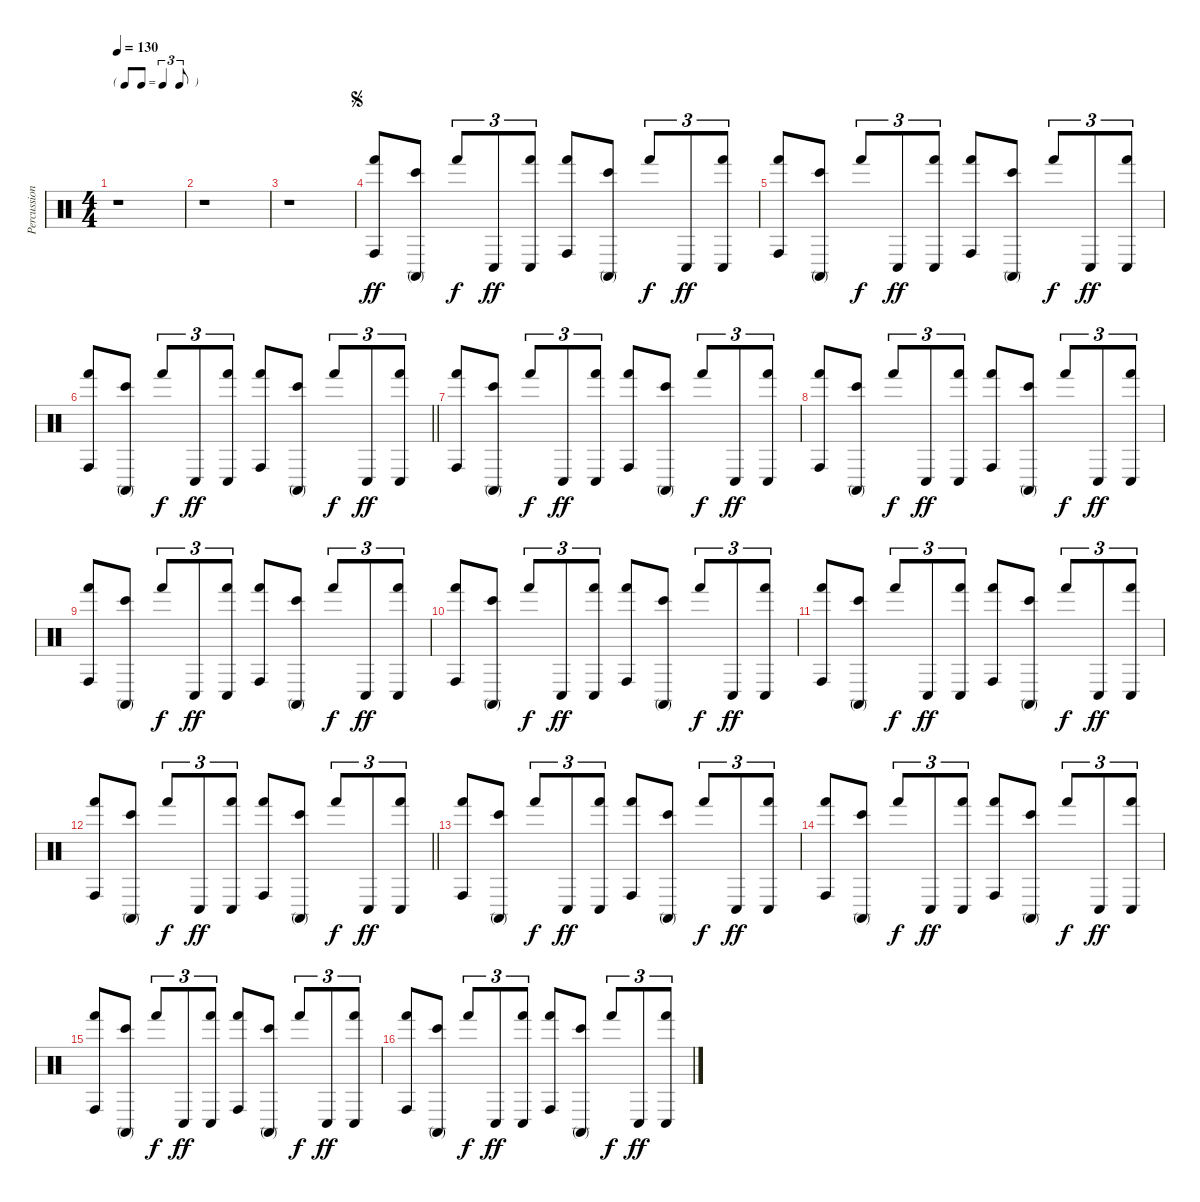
\track ("Percussion" "Percussion") {instrument percussion}
\staff {score}
\articulation defaults
\ts (4 4)
\tf triplet8th
\tempo 130
\clef neutral
\ks c
r.1{dy ff} |
r.1 |
r.1 |
\jump segno
("Hand (hit)" "Conga high (hit)").8 ("Bongo High (hit)" "Conga high (mute)").8 "Hand (hit)".8{tu (3 2) dy f} "Conga low (hit)".8{tu (3 2) dy ff} ("Hand (hit)" "Conga low (hit)").8{tu (3 2)} ("Hand (hit)" "Conga high (hit)").8 ("Bongo High (hit)" "Conga high (mute)").8 "Hand (hit)".8{tu (3 2) dy f} "Conga low (hit)".8{tu (3 2) dy ff} ("Hand (hit)" "Conga low (hit)").8{tu (3 2)} |
("Hand (hit)" "Conga high (hit)").8 ("Bongo High (hit)" "Conga high (mute)").8 "Hand (hit)".8{tu (3 2) dy f} "Conga low (hit)".8{tu (3 2) dy ff} ("Hand (hit)" "Conga low (hit)").8{tu (3 2)} ("Hand (hit)" "Conga high (hit)").8 ("Bongo High (hit)" "Conga high (mute)").8 "Hand (hit)".8{tu (3 2) dy f} "Conga low (hit)".8{tu (3 2) dy ff} ("Hand (hit)" "Conga low (hit)").8{tu (3 2)} |
\barLineRight lightlight
("Hand (hit)" "Conga high (hit)").8 ("Bongo High (hit)" "Conga high (mute)").8 "Hand (hit)".8{tu (3 2) dy f} "Conga low (hit)".8{tu (3 2) dy ff} ("Hand (hit)" "Conga low (hit)").8{tu (3 2)} ("Hand (hit)" "Conga high (hit)").8 ("Bongo High (hit)" "Conga high (mute)").8 "Hand (hit)".8{tu (3 2) dy f} "Conga low (hit)".8{tu (3 2) dy ff} ("Hand (hit)" "Conga low (hit)").8{tu (3 2)} |
("Hand (hit)" "Conga high (hit)").8 ("Bongo High (hit)" "Conga high (mute)").8 "Hand (hit)".8{tu (3 2) dy f} "Conga low (hit)".8{tu (3 2) dy ff} ("Hand (hit)" "Conga low (hit)").8{tu (3 2)} ("Hand (hit)" "Conga high (hit)").8 ("Bongo High (hit)" "Conga high (mute)").8 "Hand (hit)".8{tu (3 2) dy f} "Conga low (hit)".8{tu (3 2) dy ff} ("Hand (hit)" "Conga low (hit)").8{tu (3 2)} |
("Hand (hit)" "Conga high (hit)").8 ("Bongo High (hit)" "Conga high (mute)").8 "Hand (hit)".8{tu (3 2) dy f} "Conga low (hit)".8{tu (3 2) dy ff} ("Hand (hit)" "Conga low (hit)").8{tu (3 2)} ("Hand (hit)" "Conga high (hit)").8 ("Bongo High (hit)" "Conga high (mute)").8 "Hand (hit)".8{tu (3 2) dy f} "Conga low (hit)".8{tu (3 2) dy ff} ("Hand (hit)" "Conga low (hit)").8{tu (3 2)} |
("Hand (hit)" "Conga high (hit)").8 ("Bongo High (hit)" "Conga high (mute)").8 "Hand (hit)".8{tu (3 2) dy f} "Conga low (hit)".8{tu (3 2) dy ff} ("Hand (hit)" "Conga low (hit)").8{tu (3 2)} ("Hand (hit)" "Conga high (hit)").8 ("Bongo High (hit)" "Conga high (mute)").8 "Hand (hit)".8{tu (3 2) dy f} "Conga low (hit)".8{tu (3 2) dy ff} ("Hand (hit)" "Conga low (hit)").8{tu (3 2)} |
("Hand (hit)" "Conga high (hit)").8 ("Bongo High (hit)" "Conga high (mute)").8 "Hand (hit)".8{tu (3 2) dy f} "Conga low (hit)".8{tu (3 2) dy ff} ("Hand (hit)" "Conga low (hit)").8{tu (3 2)} ("Hand (hit)" "Conga high (hit)").8 ("Bongo High (hit)" "Conga high (mute)").8 "Hand (hit)".8{tu (3 2) dy f} "Conga low (hit)".8{tu (3 2) dy ff} ("Hand (hit)" "Conga low (hit)").8{tu (3 2)} |
("Hand (hit)" "Conga high (hit)").8 ("Bongo High (hit)" "Conga high (mute)").8 "Hand (hit)".8{tu (3 2) dy f} "Conga low (hit)".8{tu (3 2) dy ff} ("Hand (hit)" "Conga low (hit)").8{tu (3 2)} ("Hand (hit)" "Conga high (hit)").8 ("Bongo High (hit)" "Conga high (mute)").8 "Hand (hit)".8{tu (3 2) dy f} "Conga low (hit)".8{tu (3 2) dy ff} ("Hand (hit)" "Conga low (hit)").8{tu (3 2)} |
\barLineRight lightlight
("Hand (hit)" "Conga high (hit)").8 ("Bongo High (hit)" "Conga high (mute)").8 "Hand (hit)".8{tu (3 2) dy f} "Conga low (hit)".8{tu (3 2) dy ff} ("Hand (hit)" "Conga low (hit)").8{tu (3 2)} ("Hand (hit)" "Conga high (hit)").8 ("Bongo High (hit)" "Conga high (mute)").8 "Hand (hit)".8{tu (3 2) dy f} "Conga low (hit)".8{tu (3 2) dy ff} ("Hand (hit)" "Conga low (hit)").8{tu (3 2)} |
("Hand (hit)" "Conga high (hit)").8 ("Bongo High (hit)" "Conga high (mute)").8 "Hand (hit)".8{tu (3 2) dy f} "Conga low (hit)".8{tu (3 2) dy ff} ("Hand (hit)" "Conga low (hit)").8{tu (3 2)} ("Hand (hit)" "Conga high (hit)").8 ("Bongo High (hit)" "Conga high (mute)").8 "Hand (hit)".8{tu (3 2) dy f} "Conga low (hit)".8{tu (3 2) dy ff} ("Hand (hit)" "Conga low (hit)").8{tu (3 2)} |
("Hand (hit)" "Conga high (hit)").8 ("Bongo High (hit)" "Conga high (mute)").8 "Hand (hit)".8{tu (3 2) dy f} "Conga low (hit)".8{tu (3 2) dy ff} ("Hand (hit)" "Conga low (hit)").8{tu (3 2)} ("Hand (hit)" "Conga high (hit)").8 ("Bongo High (hit)" "Conga high (mute)").8 "Hand (hit)".8{tu (3 2) dy f} "Conga low (hit)".8{tu (3 2) dy ff} ("Hand (hit)" "Conga low (hit)").8{tu (3 2)} |
("Hand (hit)" "Conga high (hit)").8 ("Bongo High (hit)" "Conga high (mute)").8 "Hand (hit)".8{tu (3 2) dy f} "Conga low (hit)".8{tu (3 2) dy ff} ("Hand (hit)" "Conga low (hit)").8{tu (3 2)} ("Hand (hit)" "Conga high (hit)").8 ("Bongo High (hit)" "Conga high (mute)").8 "Hand (hit)".8{tu (3 2) dy f} "Conga low (hit)".8{tu (3 2) dy ff} ("Hand (hit)" "Conga low (hit)").8{tu (3 2)} |
("Hand (hit)" "Conga high (hit)").8 ("Bongo High (hit)" "Conga high (mute)").8 "Hand (hit)".8{tu (3 2) dy f} "Conga low (hit)".8{tu (3 2) dy ff} ("Hand (hit)" "Conga low (hit)").8{tu (3 2)} ("Hand (hit)" "Conga high (hit)").8 ("Bongo High (hit)" "Conga high (mute)").8 "Hand (hit)".8{tu (3 2) dy f} "Conga low (hit)".8{tu (3 2) dy ff} ("Hand (hit)" "Conga low (hit)").8{tu (3 2)}
